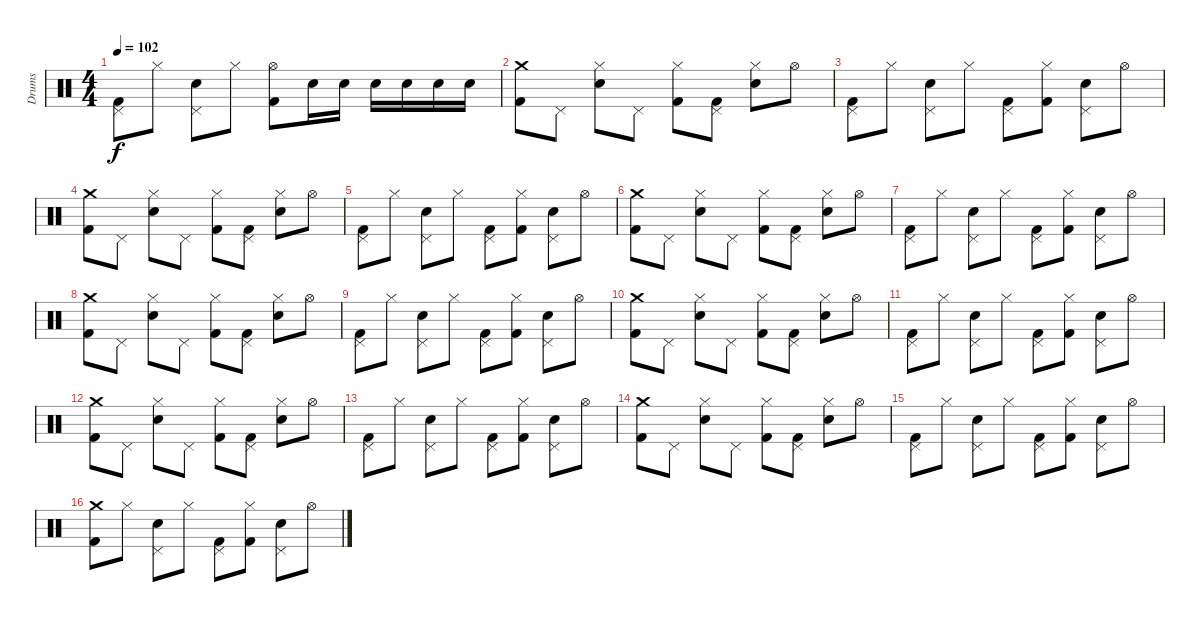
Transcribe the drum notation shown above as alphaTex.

\track ("Drums" "Drums") {instrument percussion}
\staff {score}
\articulation defaults
\ts (4 4)
\tempo 102
\clef neutral
\ks c
("Pedal Hi-Hat (hit)" "Kick (hit) 2").8{dy f} "Hi-Hat (closed)".8 ("Pedal Hi-Hat (hit)" "Electric Snare (hit)").8 "Hi-Hat (closed)".8 ("Hi-Hat (open)" "Kick (hit) 2").8 "Electric Snare (hit)".16 "Electric Snare (hit)".16 "Electric Snare (hit)".16 "Electric Snare (hit)".16 "Electric Snare (hit)".16 "Electric Snare (hit)".16 |
("Crash medium (hit)" "Kick (hit) 2").8 "Pedal Hi-Hat (hit)".8 ("Hi-Hat (closed)" "Electric Snare (hit)").8 "Pedal Hi-Hat (hit)".8 ("Hi-Hat (closed)" "Kick (hit) 2").8 ("Pedal Hi-Hat (hit)" "Kick (hit) 2").8 ("Hi-Hat (closed)" "Electric Snare (hit)").8 "Hi-Hat (open)".8 |
("Pedal Hi-Hat (hit)" "Kick (hit) 2").8 "Hi-Hat (closed)".8 ("Pedal Hi-Hat (hit)" "Electric Snare (hit)").8 "Hi-Hat (closed)".8 ("Pedal Hi-Hat (hit)" "Kick (hit) 2").8 ("Hi-Hat (closed)" "Kick (hit) 2").8 ("Pedal Hi-Hat (hit)" "Electric Snare (hit)").8 "Hi-Hat (open)".8 |
("Crash medium (hit)" "Kick (hit) 2").8 "Pedal Hi-Hat (hit)".8 ("Hi-Hat (closed)" "Electric Snare (hit)").8 "Pedal Hi-Hat (hit)".8 ("Hi-Hat (closed)" "Kick (hit) 2").8 ("Pedal Hi-Hat (hit)" "Kick (hit) 2").8 ("Hi-Hat (closed)" "Electric Snare (hit)").8 "Hi-Hat (open)".8 |
("Pedal Hi-Hat (hit)" "Kick (hit) 2").8 "Hi-Hat (closed)".8 ("Pedal Hi-Hat (hit)" "Electric Snare (hit)").8 "Hi-Hat (closed)".8 ("Pedal Hi-Hat (hit)" "Kick (hit) 2").8 ("Hi-Hat (closed)" "Kick (hit) 2").8 ("Pedal Hi-Hat (hit)" "Electric Snare (hit)").8 "Hi-Hat (open)".8 |
("Crash medium (hit)" "Kick (hit) 2").8 "Pedal Hi-Hat (hit)".8 ("Hi-Hat (closed)" "Electric Snare (hit)").8 "Pedal Hi-Hat (hit)".8 ("Hi-Hat (closed)" "Kick (hit) 2").8 ("Pedal Hi-Hat (hit)" "Kick (hit) 2").8 ("Hi-Hat (closed)" "Electric Snare (hit)").8 "Hi-Hat (open)".8 |
("Pedal Hi-Hat (hit)" "Kick (hit) 2").8 "Hi-Hat (closed)".8 ("Pedal Hi-Hat (hit)" "Electric Snare (hit)").8 "Hi-Hat (closed)".8 ("Pedal Hi-Hat (hit)" "Kick (hit) 2").8 ("Hi-Hat (closed)" "Kick (hit) 2").8 ("Pedal Hi-Hat (hit)" "Electric Snare (hit)").8 "Hi-Hat (open)".8 |
("Crash medium (hit)" "Kick (hit) 2").8 "Pedal Hi-Hat (hit)".8 ("Hi-Hat (closed)" "Electric Snare (hit)").8 "Pedal Hi-Hat (hit)".8 ("Hi-Hat (closed)" "Kick (hit) 2").8 ("Pedal Hi-Hat (hit)" "Kick (hit) 2").8 ("Hi-Hat (closed)" "Electric Snare (hit)").8 "Hi-Hat (open)".8 |
("Pedal Hi-Hat (hit)" "Kick (hit) 2").8 "Hi-Hat (closed)".8 ("Pedal Hi-Hat (hit)" "Electric Snare (hit)").8 "Hi-Hat (closed)".8 ("Pedal Hi-Hat (hit)" "Kick (hit) 2").8 ("Hi-Hat (closed)" "Kick (hit) 2").8 ("Pedal Hi-Hat (hit)" "Electric Snare (hit)").8 "Hi-Hat (open)".8 |
("Crash medium (hit)" "Kick (hit) 2").8 "Pedal Hi-Hat (hit)".8 ("Hi-Hat (closed)" "Electric Snare (hit)").8 "Pedal Hi-Hat (hit)".8 ("Hi-Hat (closed)" "Kick (hit) 2").8 ("Pedal Hi-Hat (hit)" "Kick (hit) 2").8 ("Hi-Hat (closed)" "Electric Snare (hit)").8 "Hi-Hat (open)".8 |
("Pedal Hi-Hat (hit)" "Kick (hit) 2").8 "Hi-Hat (closed)".8 ("Pedal Hi-Hat (hit)" "Electric Snare (hit)").8 "Hi-Hat (closed)".8 ("Pedal Hi-Hat (hit)" "Kick (hit) 2").8 ("Hi-Hat (closed)" "Kick (hit) 2").8 ("Pedal Hi-Hat (hit)" "Electric Snare (hit)").8 "Hi-Hat (open)".8 |
("Crash medium (hit)" "Kick (hit) 2").8 "Pedal Hi-Hat (hit)".8 ("Hi-Hat (closed)" "Electric Snare (hit)").8 "Pedal Hi-Hat (hit)".8 ("Hi-Hat (closed)" "Kick (hit) 2").8 ("Pedal Hi-Hat (hit)" "Kick (hit) 2").8 ("Hi-Hat (closed)" "Electric Snare (hit)").8 "Hi-Hat (open)".8 |
("Pedal Hi-Hat (hit)" "Kick (hit) 2").8 "Hi-Hat (closed)".8 ("Pedal Hi-Hat (hit)" "Electric Snare (hit)").8 "Hi-Hat (closed)".8 ("Pedal Hi-Hat (hit)" "Kick (hit) 2").8 ("Hi-Hat (closed)" "Kick (hit) 2").8 ("Pedal Hi-Hat (hit)" "Electric Snare (hit)").8 "Hi-Hat (open)".8 |
("Crash medium (hit)" "Kick (hit) 2").8 "Pedal Hi-Hat (hit)".8 ("Hi-Hat (closed)" "Electric Snare (hit)").8 "Pedal Hi-Hat (hit)".8 ("Hi-Hat (closed)" "Kick (hit) 2").8 ("Pedal Hi-Hat (hit)" "Kick (hit) 2").8 ("Hi-Hat (closed)" "Electric Snare (hit)").8 "Hi-Hat (open)".8 |
("Pedal Hi-Hat (hit)" "Kick (hit) 2").8 "Hi-Hat (closed)".8 ("Pedal Hi-Hat (hit)" "Electric Snare (hit)").8 "Hi-Hat (closed)".8 ("Pedal Hi-Hat (hit)" "Kick (hit) 2").8 ("Hi-Hat (closed)" "Kick (hit) 2").8 ("Pedal Hi-Hat (hit)" "Electric Snare (hit)").8 "Hi-Hat (open)".8 |
("Crash medium (hit)" "Kick (hit) 2").8 "Hi-Hat (closed)".8 ("Pedal Hi-Hat (hit)" "Electric Snare (hit)").8 "Hi-Hat (closed)".8 ("Pedal Hi-Hat (hit)" "Kick (hit) 2").8 ("Hi-Hat (closed)" "Kick (hit) 2").8 ("Pedal Hi-Hat (hit)" "Electric Snare (hit)").8 "Hi-Hat (open)".8
